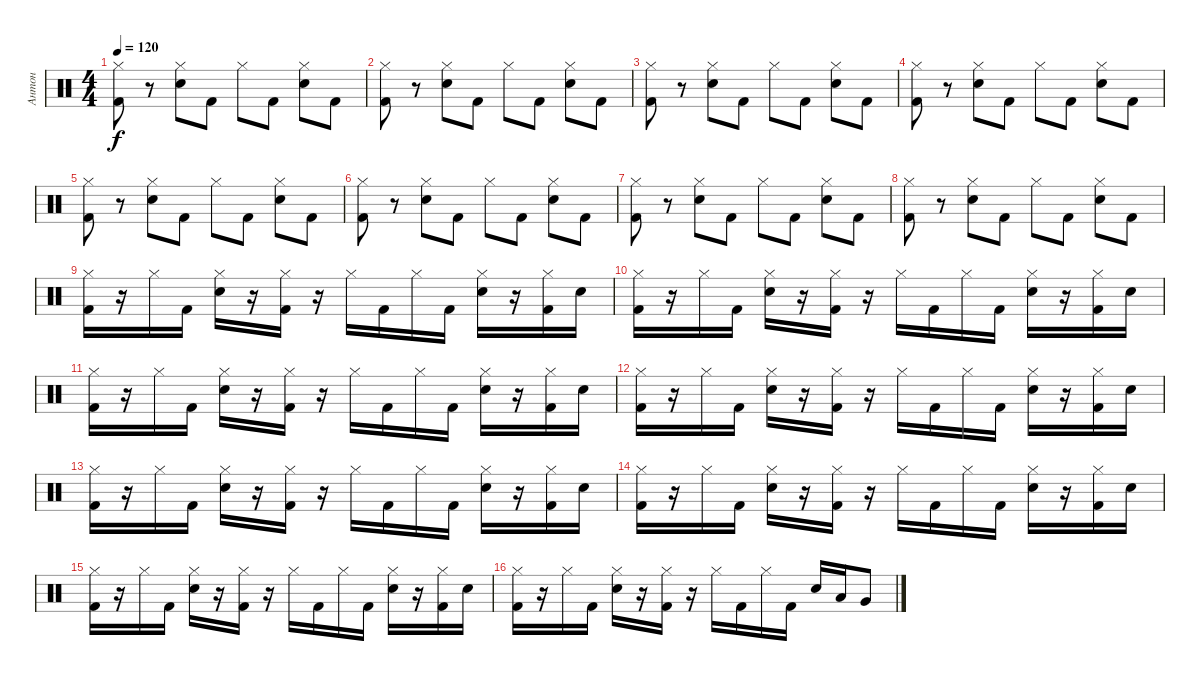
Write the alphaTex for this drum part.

\track ("Антон" "Антон") {instrument percussion}
\staff {score}
\articulation defaults
\ts (4 4)
\tempo 120
\clef neutral
\ks c
("Hi-Hat (closed)" "Kick (hit) 2").8{dy f} r.8 ("Hi-Hat (closed)" "Electric Snare (hit)").8 "Kick (hit) 2".8 "Hi-Hat (closed)".8 "Kick (hit) 2".8 ("Hi-Hat (closed)" "Electric Snare (hit)").8 "Kick (hit) 2".8 |
("Hi-Hat (closed)" "Kick (hit) 2").8 r.8 ("Hi-Hat (closed)" "Electric Snare (hit)").8 "Kick (hit) 2".8 "Hi-Hat (closed)".8 "Kick (hit) 2".8 ("Hi-Hat (closed)" "Electric Snare (hit)").8 "Kick (hit) 2".8 |
("Hi-Hat (closed)" "Kick (hit) 2").8 r.8 ("Hi-Hat (closed)" "Electric Snare (hit)").8 "Kick (hit) 2".8 "Hi-Hat (closed)".8 "Kick (hit) 2".8 ("Hi-Hat (closed)" "Electric Snare (hit)").8 "Kick (hit) 2".8 |
("Hi-Hat (closed)" "Kick (hit) 2").8 r.8 ("Hi-Hat (closed)" "Electric Snare (hit)").8 "Kick (hit) 2".8 "Hi-Hat (closed)".8 "Kick (hit) 2".8 ("Hi-Hat (closed)" "Electric Snare (hit)").8 "Kick (hit) 2".8 |
("Hi-Hat (closed)" "Kick (hit) 2").8 r.8 ("Hi-Hat (closed)" "Electric Snare (hit)").8 "Kick (hit) 2".8 "Hi-Hat (closed)".8 "Kick (hit) 2".8 ("Hi-Hat (closed)" "Electric Snare (hit)").8 "Kick (hit) 2".8 |
("Hi-Hat (closed)" "Kick (hit) 2").8 r.8 ("Hi-Hat (closed)" "Electric Snare (hit)").8 "Kick (hit) 2".8 "Hi-Hat (closed)".8 "Kick (hit) 2".8 ("Hi-Hat (closed)" "Electric Snare (hit)").8 "Kick (hit) 2".8 |
("Hi-Hat (closed)" "Kick (hit) 2").8 r.8 ("Hi-Hat (closed)" "Electric Snare (hit)").8 "Kick (hit) 2".8 "Hi-Hat (closed)".8 "Kick (hit) 2".8 ("Hi-Hat (closed)" "Electric Snare (hit)").8 "Kick (hit) 2".8 |
("Hi-Hat (closed)" "Kick (hit) 2").8 r.8 ("Hi-Hat (closed)" "Electric Snare (hit)").8 "Kick (hit) 2".8 "Hi-Hat (closed)".8 "Kick (hit) 2".8 ("Hi-Hat (closed)" "Electric Snare (hit)").8 "Kick (hit) 2".8 |
("Hi-Hat (closed)" "Kick (hit) 2").16 r.16 "Hi-Hat (closed)".16 "Kick (hit) 2".16 ("Hi-Hat (closed)" "Electric Snare (hit)").16 r.16 ("Hi-Hat (closed)" "Kick (hit) 2").16 r.16 "Hi-Hat (closed)".16 "Kick (hit) 2".16 "Hi-Hat (closed)".16 "Kick (hit) 2".16 ("Hi-Hat (closed)" "Electric Snare (hit)").16 r.16 ("Hi-Hat (closed)" "Kick (hit) 2").16 "Electric Snare (hit)".16 |
("Hi-Hat (closed)" "Kick (hit) 2").16 r.16 "Hi-Hat (closed)".16 "Kick (hit) 2".16 ("Hi-Hat (closed)" "Electric Snare (hit)").16 r.16 ("Hi-Hat (closed)" "Kick (hit) 2").16 r.16 "Hi-Hat (closed)".16 "Kick (hit) 2".16 "Hi-Hat (closed)".16 "Kick (hit) 2".16 ("Hi-Hat (closed)" "Electric Snare (hit)").16 r.16 ("Hi-Hat (closed)" "Kick (hit) 2").16 "Electric Snare (hit)".16 |
("Hi-Hat (closed)" "Kick (hit) 2").16 r.16 "Hi-Hat (closed)".16 "Kick (hit) 2".16 ("Hi-Hat (closed)" "Electric Snare (hit)").16 r.16 ("Hi-Hat (closed)" "Kick (hit) 2").16 r.16 "Hi-Hat (closed)".16 "Kick (hit) 2".16 "Hi-Hat (closed)".16 "Kick (hit) 2".16 ("Hi-Hat (closed)" "Electric Snare (hit)").16 r.16 ("Hi-Hat (closed)" "Kick (hit) 2").16 "Electric Snare (hit)".16 |
("Hi-Hat (closed)" "Kick (hit) 2").16 r.16 "Hi-Hat (closed)".16 "Kick (hit) 2".16 ("Hi-Hat (closed)" "Electric Snare (hit)").16 r.16 ("Hi-Hat (closed)" "Kick (hit) 2").16 r.16 "Hi-Hat (closed)".16 "Kick (hit) 2".16 "Hi-Hat (closed)".16 "Kick (hit) 2".16 ("Hi-Hat (closed)" "Electric Snare (hit)").16 r.16 ("Hi-Hat (closed)" "Kick (hit) 2").16 "Electric Snare (hit)".16 |
("Hi-Hat (closed)" "Kick (hit) 2").16 r.16 "Hi-Hat (closed)".16 "Kick (hit) 2".16 ("Hi-Hat (closed)" "Electric Snare (hit)").16 r.16 ("Hi-Hat (closed)" "Kick (hit) 2").16 r.16 "Hi-Hat (closed)".16 "Kick (hit) 2".16 "Hi-Hat (closed)".16 "Kick (hit) 2".16 ("Hi-Hat (closed)" "Electric Snare (hit)").16 r.16 ("Hi-Hat (closed)" "Kick (hit) 2").16 "Electric Snare (hit)".16 |
("Hi-Hat (closed)" "Kick (hit) 2").16 r.16 "Hi-Hat (closed)".16 "Kick (hit) 2".16 ("Hi-Hat (closed)" "Electric Snare (hit)").16 r.16 ("Hi-Hat (closed)" "Kick (hit) 2").16 r.16 "Hi-Hat (closed)".16 "Kick (hit) 2".16 "Hi-Hat (closed)".16 "Kick (hit) 2".16 ("Hi-Hat (closed)" "Electric Snare (hit)").16 r.16 ("Hi-Hat (closed)" "Kick (hit) 2").16 "Electric Snare (hit)".16 |
("Hi-Hat (closed)" "Kick (hit) 2").16 r.16 "Hi-Hat (closed)".16 "Kick (hit) 2".16 ("Hi-Hat (closed)" "Electric Snare (hit)").16 r.16 ("Hi-Hat (closed)" "Kick (hit) 2").16 r.16 "Hi-Hat (closed)".16 "Kick (hit) 2".16 "Hi-Hat (closed)".16 "Kick (hit) 2".16 ("Hi-Hat (closed)" "Electric Snare (hit)").16 r.16 ("Hi-Hat (closed)" "Kick (hit) 2").16 "Electric Snare (hit)".16 |
("Hi-Hat (closed)" "Kick (hit) 2").16 r.16 "Hi-Hat (closed)".16 "Kick (hit) 2".16 ("Hi-Hat (closed)" "Electric Snare (hit)").16 r.16 ("Hi-Hat (closed)" "Kick (hit) 2").16 r.16 "Hi-Hat (closed)".16 "Kick (hit) 2".16 "Hi-Hat (closed)".16 "Kick (hit) 2".16 "Electric Snare (hit)".16 "Low Tom (hit)".16 "Very Low Tom (hit)".8
